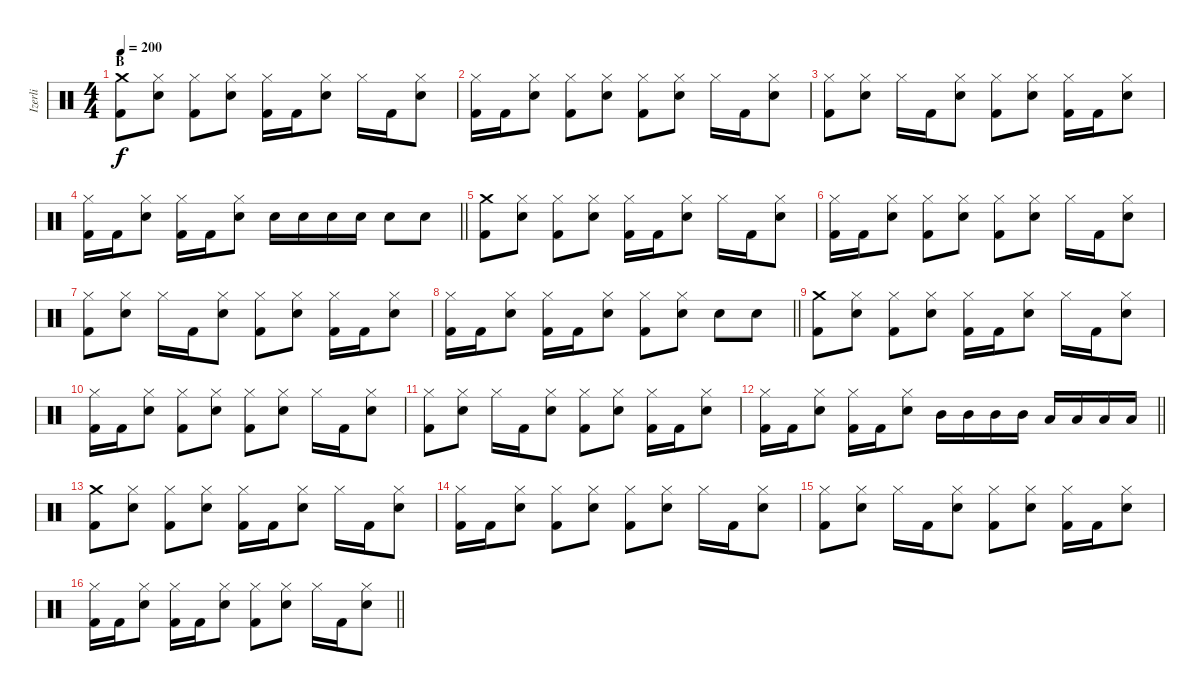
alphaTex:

\track ("Izerli" "Izerli") {instrument percussion}
\staff {score}
\articulation defaults
\ts (4 4)
\section ("" "B")
\tempo 200
\clef neutral
\ks c
("Crash medium (hit)" "Kick (hit) 2").8{dy f} ("Hi-Hat (closed)" "Electric Snare (hit)").8 ("Hi-Hat (closed)" "Kick (hit) 2").8 ("Hi-Hat (closed)" "Electric Snare (hit)").8 ("Hi-Hat (closed)" "Kick (hit) 2").16 "Kick (hit) 2".16 ("Hi-Hat (closed)" "Electric Snare (hit)").8 "Hi-Hat (closed)".16 "Kick (hit) 2".16 ("Hi-Hat (closed)" "Electric Snare (hit)").8 |
("Hi-Hat (closed)" "Kick (hit) 2").16 "Kick (hit) 2".16 ("Hi-Hat (closed)" "Electric Snare (hit)").8 ("Hi-Hat (closed)" "Kick (hit) 2").8 ("Hi-Hat (closed)" "Electric Snare (hit)").8 ("Hi-Hat (closed)" "Kick (hit) 2").8 ("Hi-Hat (closed)" "Electric Snare (hit)").8 "Hi-Hat (closed)".16 "Kick (hit) 2".16 ("Hi-Hat (closed)" "Electric Snare (hit)").8 |
("Hi-Hat (closed)" "Kick (hit) 2").8 ("Hi-Hat (closed)" "Electric Snare (hit)").8 "Hi-Hat (closed)".16 "Kick (hit) 2".16 ("Hi-Hat (closed)" "Electric Snare (hit)").8 ("Hi-Hat (closed)" "Kick (hit) 2").8 ("Hi-Hat (closed)" "Electric Snare (hit)").8 ("Hi-Hat (closed)" "Kick (hit) 2").16 "Kick (hit) 2".16 ("Hi-Hat (closed)" "Electric Snare (hit)").8 |
\barLineRight lightlight
("Hi-Hat (closed)" "Kick (hit) 2").16 "Kick (hit) 2".16 ("Hi-Hat (closed)" "Electric Snare (hit)").8 ("Hi-Hat (closed)" "Kick (hit) 2").16 "Kick (hit) 2".16 ("Hi-Hat (closed)" "Electric Snare (hit)").8 "Electric Snare (hit)".16 "Electric Snare (hit)".16 "Electric Snare (hit)".16 "Electric Snare (hit)".16 "Electric Snare (hit)".8 "Electric Snare (hit)".8 |
("Crash medium (hit)" "Kick (hit) 2").8 ("Hi-Hat (closed)" "Electric Snare (hit)").8 ("Hi-Hat (closed)" "Kick (hit) 2").8 ("Hi-Hat (closed)" "Electric Snare (hit)").8 ("Hi-Hat (closed)" "Kick (hit) 2").16 "Kick (hit) 2".16 ("Hi-Hat (closed)" "Electric Snare (hit)").8 "Hi-Hat (closed)".16 "Kick (hit) 2".16 ("Hi-Hat (closed)" "Electric Snare (hit)").8 |
("Hi-Hat (closed)" "Kick (hit) 2").16 "Kick (hit) 2".16 ("Hi-Hat (closed)" "Electric Snare (hit)").8 ("Hi-Hat (closed)" "Kick (hit) 2").8 ("Hi-Hat (closed)" "Electric Snare (hit)").8 ("Hi-Hat (closed)" "Kick (hit) 2").8 ("Hi-Hat (closed)" "Electric Snare (hit)").8 "Hi-Hat (closed)".16 "Kick (hit) 2".16 ("Hi-Hat (closed)" "Electric Snare (hit)").8 |
("Hi-Hat (closed)" "Kick (hit) 2").8 ("Hi-Hat (closed)" "Electric Snare (hit)").8 "Hi-Hat (closed)".16 "Kick (hit) 2".16 ("Hi-Hat (closed)" "Electric Snare (hit)").8 ("Hi-Hat (closed)" "Kick (hit) 2").8 ("Hi-Hat (closed)" "Electric Snare (hit)").8 ("Hi-Hat (closed)" "Kick (hit) 2").16 "Kick (hit) 2".16 ("Hi-Hat (closed)" "Electric Snare (hit)").8 |
\barLineRight lightlight
("Hi-Hat (closed)" "Kick (hit) 2").16 "Kick (hit) 2".16 ("Hi-Hat (closed)" "Electric Snare (hit)").8 ("Hi-Hat (closed)" "Kick (hit) 2").16 "Kick (hit) 2".16 ("Hi-Hat (closed)" "Electric Snare (hit)").8 ("Hi-Hat (closed)" "Kick (hit) 2").8 ("Hi-Hat (closed)" "Electric Snare (hit)").8 "Electric Snare (hit)".8 "Electric Snare (hit)".8 |
("Crash medium (hit)" "Kick (hit) 2").8 ("Hi-Hat (closed)" "Electric Snare (hit)").8 ("Hi-Hat (closed)" "Kick (hit) 2").8 ("Hi-Hat (closed)" "Electric Snare (hit)").8 ("Hi-Hat (closed)" "Kick (hit) 2").16 "Kick (hit) 2".16 ("Hi-Hat (closed)" "Electric Snare (hit)").8 "Hi-Hat (closed)".16 "Kick (hit) 2".16 ("Hi-Hat (closed)" "Electric Snare (hit)").8 |
("Hi-Hat (closed)" "Kick (hit) 2").16 "Kick (hit) 2".16 ("Hi-Hat (closed)" "Electric Snare (hit)").8 ("Hi-Hat (closed)" "Kick (hit) 2").8 ("Hi-Hat (closed)" "Electric Snare (hit)").8 ("Hi-Hat (closed)" "Kick (hit) 2").8 ("Hi-Hat (closed)" "Electric Snare (hit)").8 "Hi-Hat (closed)".16 "Kick (hit) 2".16 ("Hi-Hat (closed)" "Electric Snare (hit)").8 |
("Hi-Hat (closed)" "Kick (hit) 2").8 ("Hi-Hat (closed)" "Electric Snare (hit)").8 "Hi-Hat (closed)".16 "Kick (hit) 2".16 ("Hi-Hat (closed)" "Electric Snare (hit)").8 ("Hi-Hat (closed)" "Kick (hit) 2").8 ("Hi-Hat (closed)" "Electric Snare (hit)").8 ("Hi-Hat (closed)" "Kick (hit) 2").16 "Kick (hit) 2".16 ("Hi-Hat (closed)" "Electric Snare (hit)").8 |
\barLineRight lightlight
("Hi-Hat (closed)" "Kick (hit) 2").16 "Kick (hit) 2".16 ("Hi-Hat (closed)" "Electric Snare (hit)").8 ("Hi-Hat (closed)" "Kick (hit) 2").16 "Kick (hit) 2".16 ("Hi-Hat (closed)" "Electric Snare (hit)").8 "Mid Tom (hit)".16 "Mid Tom (hit)".16 "Mid Tom (hit)".16 "Mid Tom (hit)".16 "Low Tom (hit)".16 "Low Tom (hit)".16 "Low Tom (hit)".16 "Low Tom (hit)".16 |
("Crash medium (hit)" "Kick (hit) 2").8 ("Hi-Hat (closed)" "Electric Snare (hit)").8 ("Hi-Hat (closed)" "Kick (hit) 2").8 ("Hi-Hat (closed)" "Electric Snare (hit)").8 ("Hi-Hat (closed)" "Kick (hit) 2").16 "Kick (hit) 2".16 ("Hi-Hat (closed)" "Electric Snare (hit)").8 "Hi-Hat (closed)".16 "Kick (hit) 2".16 ("Hi-Hat (closed)" "Electric Snare (hit)").8 |
("Hi-Hat (closed)" "Kick (hit) 2").16 "Kick (hit) 2".16 ("Hi-Hat (closed)" "Electric Snare (hit)").8 ("Hi-Hat (closed)" "Kick (hit) 2").8 ("Hi-Hat (closed)" "Electric Snare (hit)").8 ("Hi-Hat (closed)" "Kick (hit) 2").8 ("Hi-Hat (closed)" "Electric Snare (hit)").8 "Hi-Hat (closed)".16 "Kick (hit) 2".16 ("Hi-Hat (closed)" "Electric Snare (hit)").8 |
("Hi-Hat (closed)" "Kick (hit) 2").8 ("Hi-Hat (closed)" "Electric Snare (hit)").8 "Hi-Hat (closed)".16 "Kick (hit) 2".16 ("Hi-Hat (closed)" "Electric Snare (hit)").8 ("Hi-Hat (closed)" "Kick (hit) 2").8 ("Hi-Hat (closed)" "Electric Snare (hit)").8 ("Hi-Hat (closed)" "Kick (hit) 2").16 "Kick (hit) 2".16 ("Hi-Hat (closed)" "Electric Snare (hit)").8 |
\barLineRight lightlight
("Hi-Hat (closed)" "Kick (hit) 2").16 "Kick (hit) 2".16 ("Hi-Hat (closed)" "Electric Snare (hit)").8 ("Hi-Hat (closed)" "Kick (hit) 2").16 "Kick (hit) 2".16 ("Hi-Hat (closed)" "Electric Snare (hit)").8 ("Hi-Hat (closed)" "Kick (hit) 2").8 ("Hi-Hat (closed)" "Electric Snare (hit)").8 "Hi-Hat (closed)".16 "Kick (hit) 2".16 ("Hi-Hat (closed)" "Electric Snare (hit)").8
